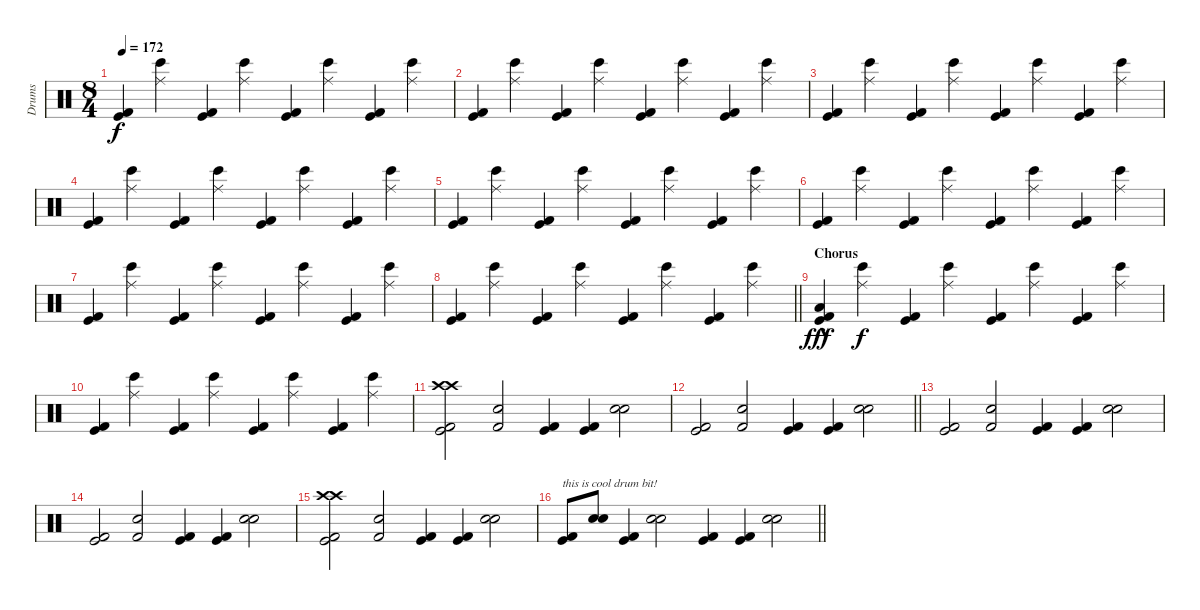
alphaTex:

\track ("Drums" "Drums") {instrument percussion}
\staff {score}
\articulation defaults
\ts (8 4)
\tempo 172
\clef neutral
\ks c
("Kick (hit) 2" "Kick (hit)").4{dy f} ("Ride (middle)" "Bongo High (hit)").4 ("Kick (hit) 2" "Kick (hit)").4 ("Ride (middle)" "Bongo High (hit)").4 ("Kick (hit) 2" "Kick (hit)").4 ("Ride (middle)" "Bongo High (hit)").4 ("Kick (hit) 2" "Kick (hit)").4 ("Ride (middle)" "Bongo High (hit)").4 |
("Kick (hit) 2" "Kick (hit)").4 ("Ride (middle)" "Bongo High (hit)").4 ("Kick (hit) 2" "Kick (hit)").4 ("Ride (middle)" "Bongo High (hit)").4 ("Kick (hit) 2" "Kick (hit)").4 ("Ride (middle)" "Bongo High (hit)").4 ("Kick (hit) 2" "Kick (hit)").4 ("Ride (middle)" "Bongo High (hit)").4 |
("Kick (hit) 2" "Kick (hit)").4 ("Ride (middle)" "Bongo High (hit)").4 ("Kick (hit) 2" "Kick (hit)").4 ("Ride (middle)" "Bongo High (hit)").4 ("Kick (hit) 2" "Kick (hit)").4 ("Ride (middle)" "Bongo High (hit)").4 ("Kick (hit) 2" "Kick (hit)").4 ("Ride (middle)" "Bongo High (hit)").4 |
("Kick (hit) 2" "Kick (hit)").4 ("Ride (middle)" "Bongo High (hit)").4 ("Kick (hit) 2" "Kick (hit)").4 ("Ride (middle)" "Bongo High (hit)").4 ("Kick (hit) 2" "Kick (hit)").4 ("Ride (middle)" "Bongo High (hit)").4 ("Kick (hit) 2" "Kick (hit)").4 ("Ride (middle)" "Bongo High (hit)").4 |
("Kick (hit) 2" "Kick (hit)").4 ("Ride (middle)" "Bongo High (hit)").4 ("Kick (hit) 2" "Kick (hit)").4 ("Ride (middle)" "Bongo High (hit)").4 ("Kick (hit) 2" "Kick (hit)").4 ("Ride (middle)" "Bongo High (hit)").4 ("Kick (hit) 2" "Kick (hit)").4 ("Ride (middle)" "Bongo High (hit)").4 |
("Kick (hit) 2" "Kick (hit)").4 ("Ride (middle)" "Bongo High (hit)").4 ("Kick (hit) 2" "Kick (hit)").4 ("Ride (middle)" "Bongo High (hit)").4 ("Kick (hit) 2" "Kick (hit)").4 ("Ride (middle)" "Bongo High (hit)").4 ("Kick (hit) 2" "Kick (hit)").4 ("Ride (middle)" "Bongo High (hit)").4 |
("Kick (hit) 2" "Kick (hit)").4 ("Ride (middle)" "Bongo High (hit)").4 ("Kick (hit) 2" "Kick (hit)").4 ("Ride (middle)" "Bongo High (hit)").4 ("Kick (hit) 2" "Kick (hit)").4 ("Ride (middle)" "Bongo High (hit)").4 ("Kick (hit) 2" "Kick (hit)").4 ("Ride (middle)" "Bongo High (hit)").4 |
\barLineRight lightlight
("Kick (hit) 2" "Kick (hit)").4 ("Ride (middle)" "Bongo High (hit)").4 ("Kick (hit) 2" "Kick (hit)").4 ("Ride (middle)" "Bongo High (hit)").4 ("Kick (hit) 2" "Kick (hit)").4 ("Ride (middle)" "Bongo High (hit)").4 ("Kick (hit) 2" "Kick (hit)").4 ("Ride (middle)" "Bongo High (hit)").4 |
\section ("" "Chorus")
("Kick (hit) 2" "Kick (hit)"{hac} "Low Floor Tom (hit)"{hac}).4{dy fff} ("Ride (middle)" "Bongo High (hit)").4{dy f} ("Kick (hit) 2" "Kick (hit)").4 ("Ride (middle)" "Bongo High (hit)").4 ("Kick (hit) 2" "Kick (hit)").4 ("Ride (middle)" "Bongo High (hit)").4 ("Kick (hit) 2" "Kick (hit)").4 ("Ride (middle)" "Bongo High (hit)").4 |
("Kick (hit) 2" "Kick (hit)").4 ("Ride (middle)" "Bongo High (hit)").4 ("Kick (hit) 2" "Kick (hit)").4 ("Ride (middle)" "Bongo High (hit)").4 ("Kick (hit) 2" "Kick (hit)").4 ("Ride (middle)" "Bongo High (hit)").4 ("Kick (hit) 2" "Kick (hit)").4 ("Ride (middle)" "Bongo High (hit)").4 |
("Crash high (hit)" "Kick (hit) 2" "Kick (hit)" "Crash high (hit)").2 ("Snare (hit) 2" "Kick (hit) 2").2 ("Kick (hit) 2" "Kick (hit)").4 ("Kick (hit) 2" "Kick (hit)").4 ("Snare (hit) 2" "Electric Snare (hit)").2 |
\barLineRight lightlight
("Kick (hit) 2" "Kick (hit)").2 ("Snare (hit) 2" "Kick (hit) 2").2 ("Kick (hit) 2" "Kick (hit)").4 ("Kick (hit) 2" "Kick (hit)").4 ("Snare (hit) 2" "Electric Snare (hit)").2 |
("Kick (hit) 2" "Kick (hit)").2 ("Snare (hit) 2" "Kick (hit) 2").2 ("Kick (hit) 2" "Kick (hit)").4 ("Kick (hit) 2" "Kick (hit)").4 ("Snare (hit) 2" "Electric Snare (hit)").2 |
("Kick (hit) 2" "Kick (hit)").2 ("Snare (hit) 2" "Kick (hit) 2").2 ("Kick (hit) 2" "Kick (hit)").4 ("Kick (hit) 2" "Kick (hit)").4 ("Snare (hit) 2" "Electric Snare (hit)").2 |
("Crash high (hit)" "Kick (hit) 2" "Kick (hit)" "Crash high (hit)").2 ("Snare (hit) 2" "Kick (hit) 2").2 ("Kick (hit) 2" "Kick (hit)").4 ("Kick (hit) 2" "Kick (hit)").4 ("Snare (hit) 2" "Electric Snare (hit)").2 |
\barLineRight lightlight
("Kick (hit) 2" "Kick (hit)").8{txt "this is cool drum bit!"} ("Snare (hit) 2" "Snare (hit) 2").8 ("Kick (hit) 2" "Kick (hit)").4 ("Snare (hit) 2" "Electric Snare (hit)").2 ("Kick (hit) 2" "Kick (hit)").4 ("Kick (hit) 2" "Kick (hit)").4 ("Snare (hit) 2" "Electric Snare (hit)").2
